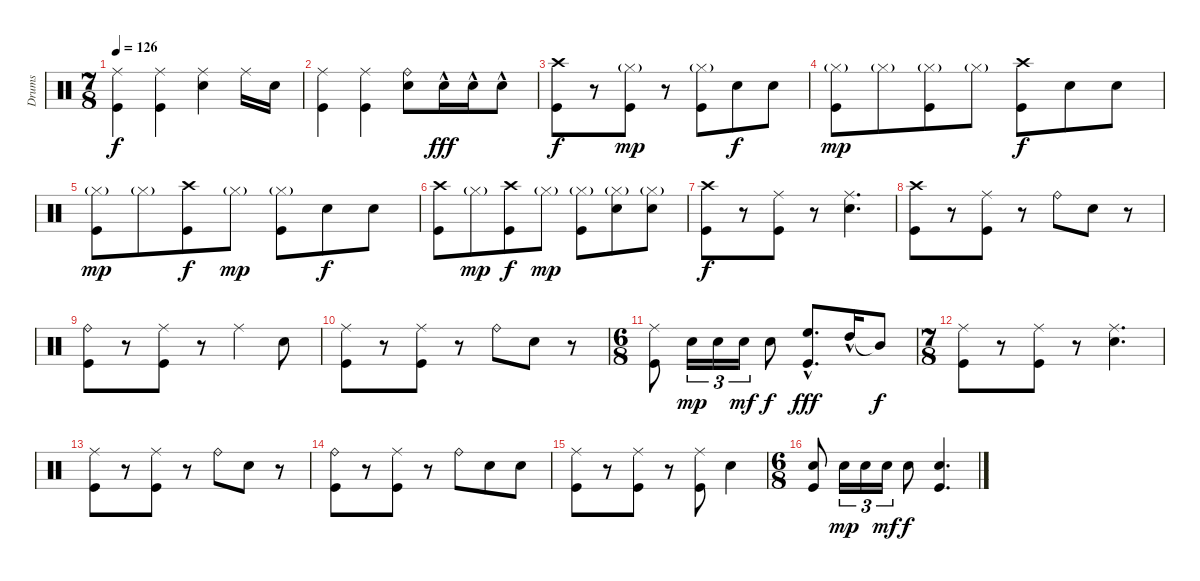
\track ("Drums" "Drums") {instrument percussion}
\staff {score}
\articulation defaults
\ts (7 8)
\tempo 126
\clef neutral
\ks c
("Ride (middle)" "Kick (hit)").4{dy f} ("Ride (middle)" "Kick (hit)").4 ("Ride (middle)" "Snare (hit) 2").4 "Ride (middle)".16 "Snare (hit) 2".16 |
("Ride (middle)" "Kick (hit)").4 ("Ride (middle)" "Kick (hit)").4 ("Ride (bell)" "Snare (hit) 2").8 "Snare (hit) 2"{hac}.16{dy fff} "Snare (hit) 2"{hac}.16 "Snare (hit) 2"{hac}.8 |
("Crash high (hit)" "Kick (hit)").8{dy f} r.8 ("Hi-Hat (closed)"{g} "Kick (hit)").8{dy mp} r.8 ("Hi-Hat (closed)"{g} "Kick (hit)").8 "Snare (hit) 2".8{dy f} "Snare (hit) 2".8 |
("Hi-Hat (closed)"{g} "Kick (hit)").8{dy mp} "Hi-Hat (closed)"{g}.8 ("Hi-Hat (closed)"{g} "Kick (hit)").8 "Hi-Hat (closed)"{g}.8 ("Crash high (hit)" "Kick (hit)").8{dy f} "Snare (hit) 2".8 "Snare (hit) 2".8 |
("Hi-Hat (closed)"{g} "Kick (hit)").8{dy mp} "Hi-Hat (closed)"{g}.8 ("Crash high (hit)" "Kick (hit)").8{dy f} "Hi-Hat (closed)"{g}.8{dy mp} ("Hi-Hat (closed)"{g} "Kick (hit)").8 "Snare (hit) 2".8{dy f} "Snare (hit) 2".8 |
("Crash high (hit)" "Kick (hit)").8 "Hi-Hat (closed)"{g}.8{dy mp} ("Crash high (hit)" "Kick (hit)").8{dy f} "Hi-Hat (closed)"{g}.8{dy mp} ("Hi-Hat (closed)"{g} "Kick (hit)").8 ("Hi-Hat (closed)"{g} "Snare (hit) 2").8 ("Hi-Hat (closed)"{g} "Snare (hit) 2").8 |
("Crash high (hit)" "Kick (hit)").8{dy f volume 13} r.8 ("Ride (middle)" "Kick (hit)").8 r.8 ("Ride (middle)" "Snare (hit) 2").4{d} |
("Crash high (hit)" "Kick (hit)").8 r.8 ("Ride (middle)" "Kick (hit)").8 r.8 "Ride (bell)".8 "Snare (hit) 2".8 r.8 |
("Ride (bell)" "Kick (hit)").8 r.8 ("Ride (middle)" "Kick (hit)").8 r.8 "Ride (middle)".4 "Snare (hit) 2".8 |
("Ride (middle)" "Kick (hit)").8 r.8 ("Ride (middle)" "Kick (hit)").8 r.8 "Ride (bell)".8 "Snare (hit) 2".8 r.8 |
\ts (6 8)
("Ride (middle)" "Kick (hit)").8 "Snare (hit) 2".16{tu (3 2) dy mp} "Snare (hit) 2".16{tu (3 2)} "Snare (hit) 2".16{tu (3 2) dy mf} "Snare (hit) 2".8{dy f} ("High Floor Tom (hit)"{hac} "Kick (hit)"{hac}).8{d dy fff} "High Tom (hit)"{hac}.16 "Mid Tom (hit)"{t}.8{dy f} |
\ts (7 8)
("Ride (middle)" "Kick (hit)").8 r.8 ("Ride (middle)" "Kick (hit)").8 r.8 ("Ride (middle)" "Snare (hit) 2").4{d} |
("Ride (middle)" "Kick (hit)").8 r.8 ("Ride (middle)" "Kick (hit)").8 r.8 "Ride (bell)".8 "Snare (hit) 2".8 r.8 |
("Ride (bell)" "Kick (hit)").8 r.8 ("Ride (middle)" "Kick (hit)").8 r.8 "Ride (bell)".8 "Snare (hit) 2".8 "Snare (hit) 2".8 |
("Ride (middle)" "Kick (hit)").8 r.8 ("Ride (middle)" "Kick (hit)").8 r.8 ("Ride (middle)" "Kick (hit)").8 "Snare (hit) 2".4 |
\ts (6 8)
("Snare (hit) 2" "Kick (hit)").8 "Snare (hit) 2".16{tu (3 2) dy mp} "Snare (hit) 2".16{tu (3 2)} "Snare (hit) 2".16{tu (3 2) dy mf} "Snare (hit) 2".8{dy f} ("Snare (hit) 2" "Kick (hit)").4{d}
